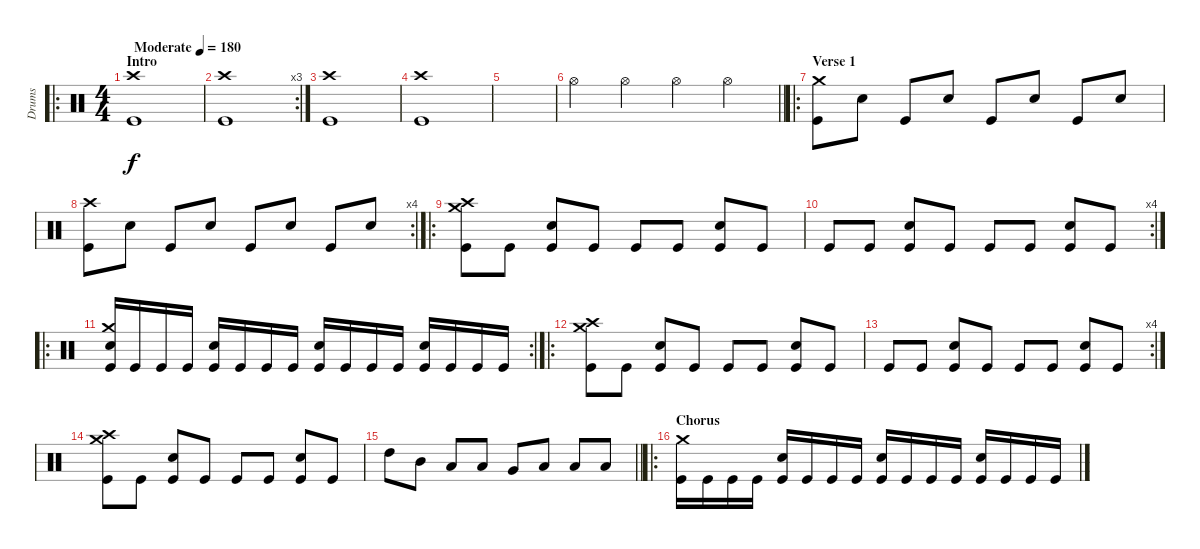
\track ("Drums" "Drums") {instrument percussion}
\staff {score}
\articulation defaults
\ro
\ts (4 4)
\section ("" "Intro")
\tempo (180 "Moderate")
\clef neutral
\ks c
("Crash high (hit)" "Kick (hit)").1{dy f} |
\rc 3
("Crash high (hit)" "Kick (hit)").1 |
("Crash high (hit)" "Kick (hit)").1 |
("Crash high (hit)" "Kick (hit)").1 |
|
\barLineRight lightlight "Hi-Hat (open)".4 "Hi-Hat (open)".4 "Hi-Hat (open)".4 "Hi-Hat (open)".4
|
\ro
\section ("" "Verse 1")
("Crash medium (hit)" "Kick (hit)").8 "Electric Snare (hit)".8 "Kick (hit)".8 "Electric Snare (hit)".8 "Kick (hit)".8 "Electric Snare (hit)".8 "Kick (hit)".8 "Electric Snare (hit)".8 |
\rc 4
("Crash high (hit)" "Kick (hit)").8 "Electric Snare (hit)".8 "Kick (hit)".8 "Electric Snare (hit)".8 "Kick (hit)".8 "Electric Snare (hit)".8 "Kick (hit)".8 "Electric Snare (hit)".8 |
\ro
("Crash medium (hit)" "Crash high (hit)" "Kick (hit)").8 "Kick (hit)".8 ("Electric Snare (hit)" "Kick (hit)").8 "Kick (hit)".8 "Kick (hit)".8 "Kick (hit)".8 ("Electric Snare (hit)" "Kick (hit)").8 "Kick (hit)".8 |
\rc 4 "Kick (hit)".8 "Kick (hit)".8
("Electric Snare (hit)" "Kick (hit)").8 "Kick (hit)".8 "Kick (hit)".8 "Kick (hit)".8 ("Electric Snare (hit)" "Kick (hit)").8 "Kick (hit)".8 |
\ro
\rc 2
("Crash medium (hit)" "Electric Snare (hit)" "Kick (hit)").16 "Kick (hit)".16 "Kick (hit)".16 "Kick (hit)".16 ("Electric Snare (hit)" "Kick (hit)").16 "Kick (hit)".16 "Kick (hit)".16 "Kick (hit)".16 ("Electric Snare (hit)" "Kick (hit)").16 "Kick (hit)".16 "Kick (hit)".16 "Kick (hit)".16 ("Electric Snare (hit)" "Kick (hit)").16 "Kick (hit)".16 "Kick (hit)".16 "Kick (hit)".16 |
\ro
("Crash medium (hit)" "Crash high (hit)" "Kick (hit)").8 "Kick (hit)".8 ("Electric Snare (hit)" "Kick (hit)").8 "Kick (hit)".8 "Kick (hit)".8 "Kick (hit)".8 ("Electric Snare (hit)" "Kick (hit)").8 "Kick (hit)".8 |
\rc 4 "Kick (hit)".8 "Kick (hit)".8
("Electric Snare (hit)" "Kick (hit)").8 "Kick (hit)".8 "Kick (hit)".8 "Kick (hit)".8 ("Electric Snare (hit)" "Kick (hit)").8 "Kick (hit)".8 |
("Crash medium (hit)" "Crash high (hit)" "Kick (hit)").8 "Kick (hit)".8 ("Electric Snare (hit)" "Kick (hit)").8 "Kick (hit)".8 "Kick (hit)".8 "Kick (hit)".8 ("Electric Snare (hit)" "Kick (hit)").8 "Kick (hit)".8 |
\barLineRight lightlight "High Tom (hit)".8 "Mid Tom (hit)".8 "Low Tom (hit)".8 "Low Tom (hit)".8 "Very Low Tom (hit)".8 "Low Floor Tom (hit)".8 "Low Floor Tom (hit)".8 "Low Floor Tom (hit)".8
|
\ro
\section ("" "Chorus")
("Crash medium (hit)" "Kick (hit)").16 "Kick (hit)".16 "Kick (hit)".16 "Kick (hit)".16 ("Electric Snare (hit)" "Kick (hit)").16 "Kick (hit)".16 "Kick (hit)".16 "Kick (hit)".16 ("Electric Snare (hit)" "Kick (hit)").16 "Kick (hit)".16 "Kick (hit)".16 "Kick (hit)".16 ("Electric Snare (hit)" "Kick (hit)").16 "Kick (hit)".16 "Kick (hit)".16 "Kick (hit)".16
